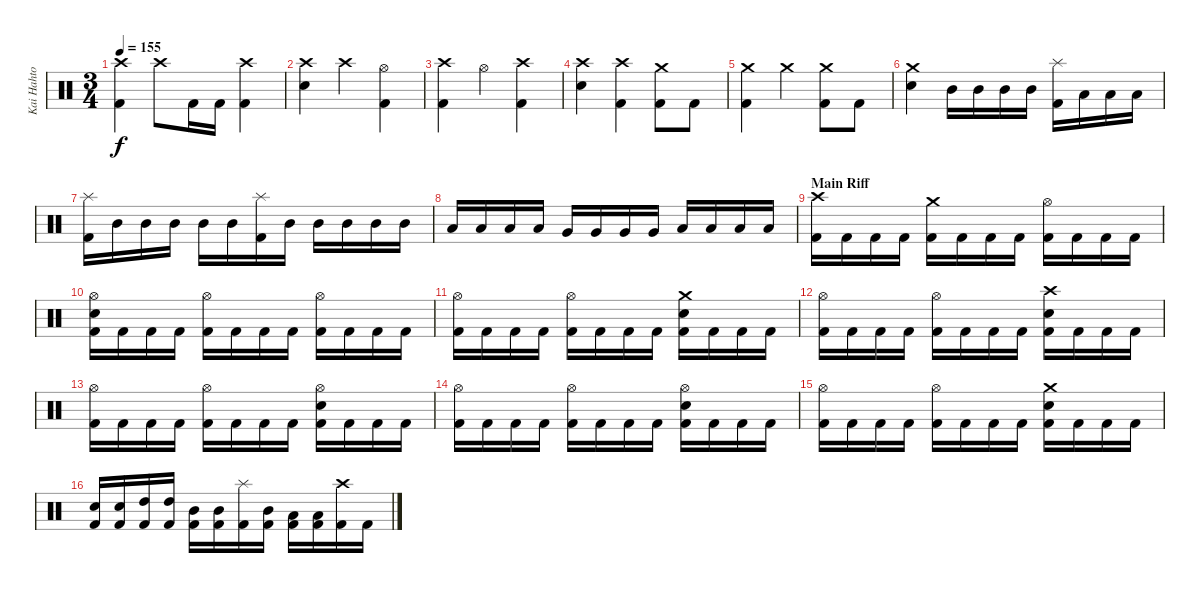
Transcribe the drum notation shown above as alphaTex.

\track ("Kai Hahto" "Kai Hahto") {instrument percussion}
\staff {score}
\articulation defaults
\ts (3 4)
\tempo 155
\clef neutral
\ks c
("Crash high (hit)" "Kick (hit) 2").4{dy f} "Crash high (hit)".8 "Kick (hit) 2".16 "Kick (hit) 2".16 ("Crash high (hit)" "Kick (hit) 2").4 |
("Crash high (hit)" "Electric Snare (hit)").4 "Crash high (hit)".4 ("Hi-Hat (open)" "Kick (hit) 2").4 |
("Crash high (hit)" "Kick (hit) 2").4 "Hi-Hat (open)".4 ("Crash high (hit)" "Kick (hit) 2").4 |
("Crash high (hit)" "Electric Snare (hit)").4 ("Crash high (hit)" "Kick (hit) 2").4 ("Crash medium (hit)" "Kick (hit) 2").8 "Kick (hit) 2".8 |
("Crash medium (hit)" "Kick (hit) 2").4 "Crash medium (hit)".4 ("Crash medium (hit)" "Kick (hit) 2").8 "Kick (hit) 2".8 |
("Crash medium (hit)" "Electric Snare (hit)").4 "Mid Tom (hit)".16 "Mid Tom (hit)".16 "Mid Tom (hit)".16 "Mid Tom (hit)".16 ("Splash (hit)" "Kick (hit) 2").16 "Low Tom (hit)".16 "Low Tom (hit)".16 "Low Tom (hit)".16 |
("Splash (hit)" "Kick (hit) 2").16 "Mid Tom (hit)".16 "Mid Tom (hit)".16 "Mid Tom (hit)".16 "Mid Tom (hit)".16 "Mid Tom (hit)".16 ("Splash (hit)" "Kick (hit) 2").16 "Mid Tom (hit)".16 "Mid Tom (hit)".16 "Mid Tom (hit)".16 "Mid Tom (hit)".16 "Mid Tom (hit)".16 |
"Low Tom (hit)".16 "Low Tom (hit)".16 "Low Tom (hit)".16 "Low Tom (hit)".16 "Very Low Tom (hit)".16 "Very Low Tom (hit)".16 "Very Low Tom (hit)".16 "Very Low Tom (hit)".16 "Low Floor Tom (hit)".16 "Low Floor Tom (hit)".16 "Low Floor Tom (hit)".16 "Low Floor Tom (hit)".16 |
\section ("" "Main Riff")
("Crash high (hit)" "Kick (hit) 2").16 "Kick (hit) 2".16 "Kick (hit) 2".16 "Kick (hit) 2".16 ("Crash medium (hit)" "Kick (hit) 2").16 "Kick (hit) 2".16 "Kick (hit) 2".16 "Kick (hit) 2".16 ("Hi-Hat (open)" "Kick (hit) 2").16 "Kick (hit) 2".16 "Kick (hit) 2".16 "Kick (hit) 2".16 |
("Hi-Hat (open)" "Electric Snare (hit)" "Kick (hit) 2").16 "Kick (hit) 2".16 "Kick (hit) 2".16 "Kick (hit) 2".16 ("Hi-Hat (open)" "Kick (hit) 2").16 "Kick (hit) 2".16 "Kick (hit) 2".16 "Kick (hit) 2".16 ("Hi-Hat (open)" "Kick (hit) 2").16 "Kick (hit) 2".16 "Kick (hit) 2".16 "Kick (hit) 2".16 |
("Hi-Hat (open)" "Kick (hit) 2").16 "Kick (hit) 2".16 "Kick (hit) 2".16 "Kick (hit) 2".16 ("Hi-Hat (open)" "Kick (hit) 2").16 "Kick (hit) 2".16 "Kick (hit) 2".16 "Kick (hit) 2".16 ("Crash medium (hit)" "Electric Snare (hit)" "Kick (hit) 2").16 "Kick (hit) 2".16 "Kick (hit) 2".16 "Kick (hit) 2".16 |
("Hi-Hat (open)" "Kick (hit) 2").16 "Kick (hit) 2".16 "Kick (hit) 2".16 "Kick (hit) 2".16 ("Hi-Hat (open)" "Kick (hit) 2").16 "Kick (hit) 2".16 "Kick (hit) 2".16 "Kick (hit) 2".16 ("Crash high (hit)" "Electric Snare (hit)" "Kick (hit) 2").16 "Kick (hit) 2".16 "Kick (hit) 2".16 "Kick (hit) 2".16 |
("Hi-Hat (open)" "Kick (hit) 2").16 "Kick (hit) 2".16 "Kick (hit) 2".16 "Kick (hit) 2".16 ("Hi-Hat (open)" "Kick (hit) 2").16 "Kick (hit) 2".16 "Kick (hit) 2".16 "Kick (hit) 2".16 ("Hi-Hat (open)" "Electric Snare (hit)" "Kick (hit) 2").16 "Kick (hit) 2".16 "Kick (hit) 2".16 "Kick (hit) 2".16 |
("Hi-Hat (open)" "Kick (hit) 2").16 "Kick (hit) 2".16 "Kick (hit) 2".16 "Kick (hit) 2".16 ("Hi-Hat (open)" "Kick (hit) 2").16 "Kick (hit) 2".16 "Kick (hit) 2".16 "Kick (hit) 2".16 ("Hi-Hat (open)" "Electric Snare (hit)" "Kick (hit) 2").16 "Kick (hit) 2".16 "Kick (hit) 2".16 "Kick (hit) 2".16 |
("Hi-Hat (open)" "Kick (hit) 2").16 "Kick (hit) 2".16 "Kick (hit) 2".16 "Kick (hit) 2".16 ("Hi-Hat (open)" "Kick (hit) 2").16 "Kick (hit) 2".16 "Kick (hit) 2".16 "Kick (hit) 2".16 ("Crash medium (hit)" "Electric Snare (hit)" "Kick (hit) 2").16 "Kick (hit) 2".16 "Kick (hit) 2".16 "Kick (hit) 2".16 |
("Electric Snare (hit)" "Kick (hit) 2").16 ("Electric Snare (hit)" "Kick (hit) 2").16 ("High Tom (hit)" "Kick (hit) 2").16 ("High Tom (hit)" "Kick (hit) 2").16 ("Mid Tom (hit)" "Kick (hit) 2").16 ("Mid Tom (hit)" "Kick (hit) 2").16 ("Splash (hit)" "Kick (hit) 2").16 ("Mid Tom (hit)" "Kick (hit) 2").16 ("Low Tom (hit)" "Kick (hit) 2").16 ("Low Tom (hit)" "Kick (hit) 2").16 ("Crash high (hit)" "Kick (hit) 2").16 "Kick (hit) 2".16
